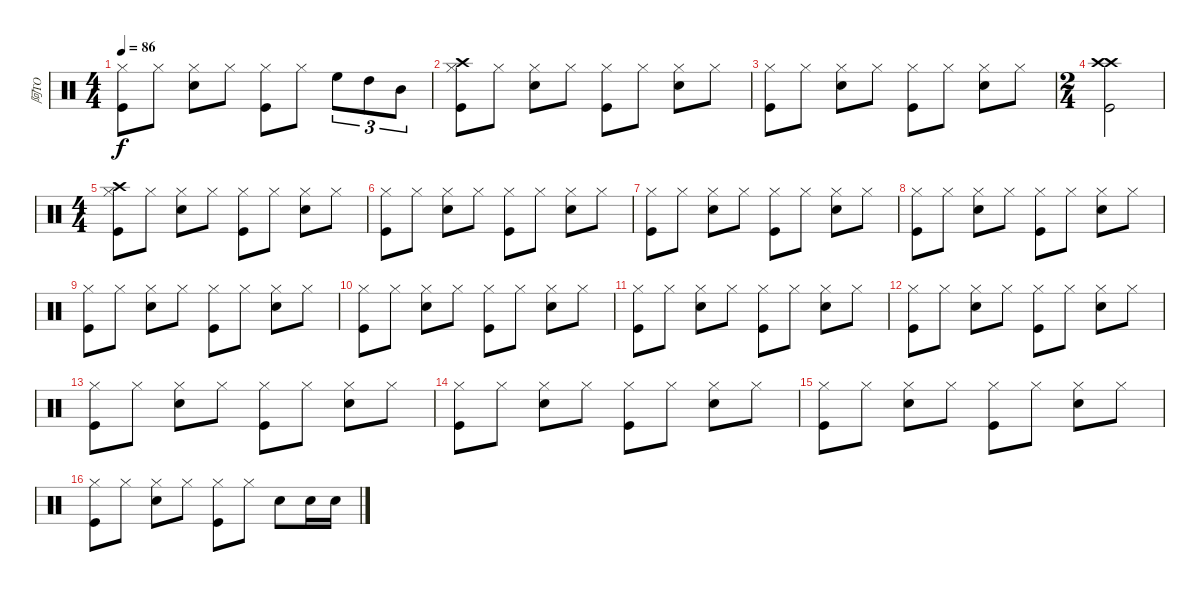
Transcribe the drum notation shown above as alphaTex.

\track ("阿TO" "阿TO") {instrument percussion}
\staff {score}
\articulation defaults
\ts (4 4)
\tempo 86
\clef neutral
\ks c
("Kick (hit)" "Hi-Hat (closed)").8{dy f} "Hi-Hat (closed)".8 ("Snare (hit) 2" "Hi-Hat (closed)").8 "Hi-Hat (closed)".8 ("Kick (hit)" "Hi-Hat (closed)").8 "Hi-Hat (closed)".8 "High Floor Tom (hit)".8{tu (3 2)} "High Tom (hit)".8{tu (3 2)} "Mid Tom (hit)".8{tu (3 2)} |
("Crash high (hit)" "Kick (hit)" "Hi-Hat (closed)").8 "Hi-Hat (closed)".8 ("Snare (hit) 2" "Hi-Hat (closed)").8 "Hi-Hat (closed)".8 ("Kick (hit)" "Hi-Hat (closed)").8 "Hi-Hat (closed)".8 ("Snare (hit) 2" "Hi-Hat (closed)").8 "Hi-Hat (closed)".8 |
("Kick (hit)" "Hi-Hat (closed)").8 "Hi-Hat (closed)".8 ("Snare (hit) 2" "Hi-Hat (closed)").8 "Hi-Hat (closed)".8 ("Kick (hit)" "Hi-Hat (closed)").8 "Hi-Hat (closed)".8 ("Snare (hit) 2" "Hi-Hat (closed)").8 "Hi-Hat (closed)".8 |
\ts (2 4)
("Kick (hit)" "Crash high (hit)" "Crash high (hit)").2 |
\ts (4 4)
("Crash high (hit)" "Kick (hit)" "Hi-Hat (closed)").8 "Hi-Hat (closed)".8 ("Snare (hit) 2" "Hi-Hat (closed)").8 "Hi-Hat (closed)".8 ("Kick (hit)" "Hi-Hat (closed)").8 "Hi-Hat (closed)".8 ("Snare (hit) 2" "Hi-Hat (closed)").8 "Hi-Hat (closed)".8 |
("Kick (hit)" "Hi-Hat (closed)").8 "Hi-Hat (closed)".8 ("Snare (hit) 2" "Hi-Hat (closed)").8 "Hi-Hat (closed)".8 ("Kick (hit)" "Hi-Hat (closed)").8 "Hi-Hat (closed)".8 ("Snare (hit) 2" "Hi-Hat (closed)").8 "Hi-Hat (closed)".8 |
("Kick (hit)" "Hi-Hat (closed)").8 "Hi-Hat (closed)".8 ("Snare (hit) 2" "Hi-Hat (closed)").8 "Hi-Hat (closed)".8 ("Kick (hit)" "Hi-Hat (closed)").8 "Hi-Hat (closed)".8 ("Snare (hit) 2" "Hi-Hat (closed)").8 "Hi-Hat (closed)".8 |
("Kick (hit)" "Hi-Hat (closed)").8 "Hi-Hat (closed)".8 ("Snare (hit) 2" "Hi-Hat (closed)").8 "Hi-Hat (closed)".8 ("Kick (hit)" "Hi-Hat (closed)").8 "Hi-Hat (closed)".8 ("Snare (hit) 2" "Hi-Hat (closed)").8 "Hi-Hat (closed)".8 |
("Kick (hit)" "Hi-Hat (closed)").8 "Hi-Hat (closed)".8 ("Snare (hit) 2" "Hi-Hat (closed)").8 "Hi-Hat (closed)".8 ("Kick (hit)" "Hi-Hat (closed)").8 "Hi-Hat (closed)".8 ("Snare (hit) 2" "Hi-Hat (closed)").8 "Hi-Hat (closed)".8 |
("Kick (hit)" "Hi-Hat (closed)").8 "Hi-Hat (closed)".8 ("Snare (hit) 2" "Hi-Hat (closed)").8 "Hi-Hat (closed)".8 ("Kick (hit)" "Hi-Hat (closed)").8 "Hi-Hat (closed)".8 ("Snare (hit) 2" "Hi-Hat (closed)").8 "Hi-Hat (closed)".8 |
("Kick (hit)" "Hi-Hat (closed)").8 "Hi-Hat (closed)".8 ("Snare (hit) 2" "Hi-Hat (closed)").8 "Hi-Hat (closed)".8 ("Kick (hit)" "Hi-Hat (closed)").8 "Hi-Hat (closed)".8 ("Snare (hit) 2" "Hi-Hat (closed)").8 "Hi-Hat (closed)".8 |
("Kick (hit)" "Hi-Hat (closed)").8 "Hi-Hat (closed)".8 ("Snare (hit) 2" "Hi-Hat (closed)").8 "Hi-Hat (closed)".8 ("Kick (hit)" "Hi-Hat (closed)").8 "Hi-Hat (closed)".8 ("Snare (hit) 2" "Hi-Hat (closed)").8 "Hi-Hat (closed)".8 |
("Kick (hit)" "Hi-Hat (closed)").8 "Hi-Hat (closed)".8 ("Snare (hit) 2" "Hi-Hat (closed)").8 "Hi-Hat (closed)".8 ("Kick (hit)" "Hi-Hat (closed)").8 "Hi-Hat (closed)".8 ("Snare (hit) 2" "Hi-Hat (closed)").8 "Hi-Hat (closed)".8 |
("Kick (hit)" "Hi-Hat (closed)").8 "Hi-Hat (closed)".8 ("Snare (hit) 2" "Hi-Hat (closed)").8 "Hi-Hat (closed)".8 ("Kick (hit)" "Hi-Hat (closed)").8 "Hi-Hat (closed)".8 ("Snare (hit) 2" "Hi-Hat (closed)").8 "Hi-Hat (closed)".8 |
("Kick (hit)" "Hi-Hat (closed)").8 "Hi-Hat (closed)".8 ("Snare (hit) 2" "Hi-Hat (closed)").8 "Hi-Hat (closed)".8 ("Kick (hit)" "Hi-Hat (closed)").8 "Hi-Hat (closed)".8 ("Snare (hit) 2" "Hi-Hat (closed)").8 "Hi-Hat (closed)".8 |
("Kick (hit)" "Hi-Hat (closed)").8 "Hi-Hat (closed)".8 ("Snare (hit) 2" "Hi-Hat (closed)").8 "Hi-Hat (closed)".8 ("Kick (hit)" "Hi-Hat (closed)").8 "Hi-Hat (closed)".8 "Snare (hit) 2".8 "Snare (hit) 2".16 "Snare (hit) 2".16
